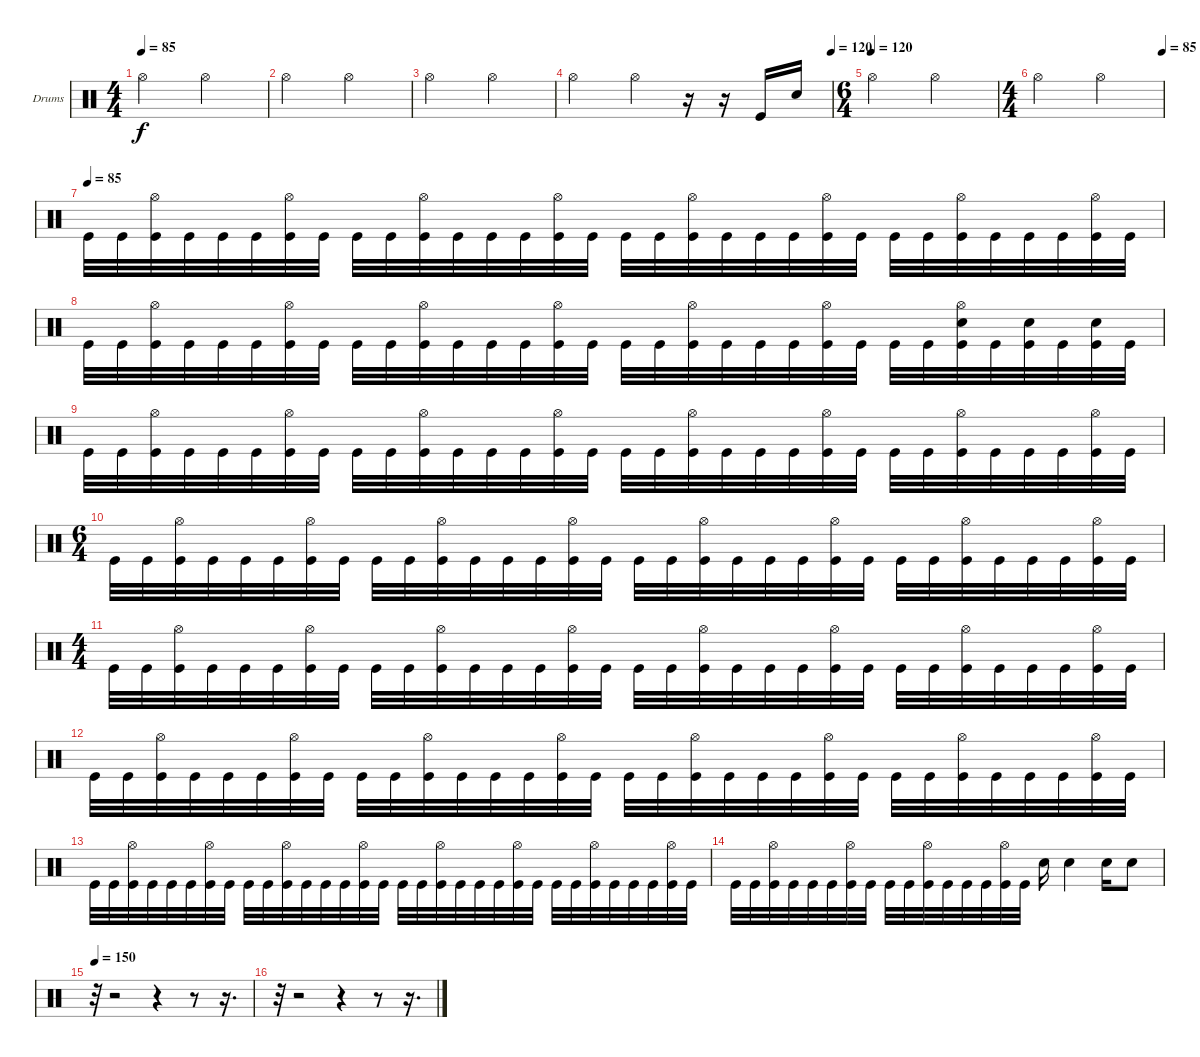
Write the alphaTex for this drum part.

\bracketExtendMode groupsimilarinstruments
\firstSystemTrackNameOrientation horizontal
\otherSystemsTrackNameOrientation horizontal
\track ("Drumkit" "Drums") {instrument percussion}
\staff {score}
\articulation defaults
\ts (4 4)
\beaming (8 2 2 2 2)
\tempo 85
\clef neutral
\ks c "Hi-Hat (open)".2{dy f} "Hi-Hat (open)".2
|
"Hi-Hat (open)".2 "Hi-Hat (open)".2 |
"Hi-Hat (open)".2 "Hi-Hat (open)".2 |
\tempo (120 1)
"Hi-Hat (open)".2 "Hi-Hat (open)".4 r.16 r.16 "Kick (hit)".16 "Snare (hit) 2".16 |
\ts (6 4)
\tempo (120)
"Hi-Hat (open)".2 "Hi-Hat (open)".2 |
\ts (4 4)
\tempo (85 1)
"Hi-Hat (open)".2 "Hi-Hat (open)".2 |
\tempo (85)
"Kick (hit)".32 "Kick (hit)".32 ("Hi-Hat (open)" "Kick (hit)").32 "Kick (hit)".32 "Kick (hit)".32 "Kick (hit)".32 ("Hi-Hat (open)" "Kick (hit)").32 "Kick (hit)".32 "Kick (hit)".32 "Kick (hit)".32 ("Hi-Hat (open)" "Kick (hit)").32 "Kick (hit)".32 "Kick (hit)".32 "Kick (hit)".32 ("Hi-Hat (open)" "Kick (hit)").32 "Kick (hit)".32 "Kick (hit)".32 "Kick (hit)".32 ("Hi-Hat (open)" "Kick (hit)").32 "Kick (hit)".32 "Kick (hit)".32 "Kick (hit)".32 ("Hi-Hat (open)" "Kick (hit)").32 "Kick (hit)".32 "Kick (hit)".32 "Kick (hit)".32 ("Hi-Hat (open)" "Kick (hit)").32 "Kick (hit)".32 "Kick (hit)".32 "Kick (hit)".32 ("Hi-Hat (open)" "Kick (hit)").32 "Kick (hit)".32 |
"Kick (hit)".32 "Kick (hit)".32 ("Hi-Hat (open)" "Kick (hit)").32 "Kick (hit)".32 "Kick (hit)".32 "Kick (hit)".32 ("Hi-Hat (open)" "Kick (hit)").32 "Kick (hit)".32 "Kick (hit)".32 "Kick (hit)".32 ("Hi-Hat (open)" "Kick (hit)").32 "Kick (hit)".32 "Kick (hit)".32 "Kick (hit)".32 ("Hi-Hat (open)" "Kick (hit)").32 "Kick (hit)".32 "Kick (hit)".32 "Kick (hit)".32 ("Hi-Hat (open)" "Kick (hit)").32 "Kick (hit)".32 "Kick (hit)".32 "Kick (hit)".32 ("Hi-Hat (open)" "Kick (hit)").32 "Kick (hit)".32 "Kick (hit)".32 "Kick (hit)".32 ("Hi-Hat (open)" "Snare (hit) 2" "Kick (hit)").32 "Kick (hit)".32 ("Snare (hit) 2" "Kick (hit)").32 "Kick (hit)".32 ("Snare (hit) 2" "Kick (hit)").32 "Kick (hit)".32 |
"Kick (hit)".32 "Kick (hit)".32 ("Hi-Hat (open)" "Kick (hit)").32 "Kick (hit)".32 "Kick (hit)".32 "Kick (hit)".32 ("Hi-Hat (open)" "Kick (hit)").32 "Kick (hit)".32 "Kick (hit)".32 "Kick (hit)".32 ("Hi-Hat (open)" "Kick (hit)").32 "Kick (hit)".32 "Kick (hit)".32 "Kick (hit)".32 ("Hi-Hat (open)" "Kick (hit)").32 "Kick (hit)".32 "Kick (hit)".32 "Kick (hit)".32 ("Hi-Hat (open)" "Kick (hit)").32 "Kick (hit)".32 "Kick (hit)".32 "Kick (hit)".32 ("Hi-Hat (open)" "Kick (hit)").32 "Kick (hit)".32 "Kick (hit)".32 "Kick (hit)".32 ("Hi-Hat (open)" "Kick (hit)").32 "Kick (hit)".32 "Kick (hit)".32 "Kick (hit)".32 ("Hi-Hat (open)" "Kick (hit)").32 "Kick (hit)".32 |
\ts (6 4)
"Kick (hit)".32 "Kick (hit)".32 ("Hi-Hat (open)" "Kick (hit)").32 "Kick (hit)".32 "Kick (hit)".32 "Kick (hit)".32 ("Hi-Hat (open)" "Kick (hit)").32 "Kick (hit)".32 "Kick (hit)".32 "Kick (hit)".32 ("Hi-Hat (open)" "Kick (hit)").32 "Kick (hit)".32 "Kick (hit)".32 "Kick (hit)".32 ("Hi-Hat (open)" "Kick (hit)").32 "Kick (hit)".32 "Kick (hit)".32 "Kick (hit)".32 ("Hi-Hat (open)" "Kick (hit)").32 "Kick (hit)".32 "Kick (hit)".32 "Kick (hit)".32 ("Hi-Hat (open)" "Kick (hit)").32 "Kick (hit)".32 "Kick (hit)".32 "Kick (hit)".32 ("Hi-Hat (open)" "Kick (hit)").32 "Kick (hit)".32 "Kick (hit)".32 "Kick (hit)".32 ("Hi-Hat (open)" "Kick (hit)").32 "Kick (hit)".32 |
\ts (4 4)
"Kick (hit)".32 "Kick (hit)".32 ("Hi-Hat (open)" "Kick (hit)").32 "Kick (hit)".32 "Kick (hit)".32 "Kick (hit)".32 ("Hi-Hat (open)" "Kick (hit)").32 "Kick (hit)".32 "Kick (hit)".32 "Kick (hit)".32 ("Hi-Hat (open)" "Kick (hit)").32 "Kick (hit)".32 "Kick (hit)".32 "Kick (hit)".32 ("Hi-Hat (open)" "Kick (hit)").32 "Kick (hit)".32 "Kick (hit)".32 "Kick (hit)".32 ("Hi-Hat (open)" "Kick (hit)").32 "Kick (hit)".32 "Kick (hit)".32 "Kick (hit)".32 ("Hi-Hat (open)" "Kick (hit)").32 "Kick (hit)".32 "Kick (hit)".32 "Kick (hit)".32 ("Hi-Hat (open)" "Kick (hit)").32 "Kick (hit)".32 "Kick (hit)".32 "Kick (hit)".32 ("Hi-Hat (open)" "Kick (hit)").32 "Kick (hit)".32 |
"Kick (hit)".32 "Kick (hit)".32 ("Hi-Hat (open)" "Kick (hit)").32 "Kick (hit)".32 "Kick (hit)".32 "Kick (hit)".32 ("Hi-Hat (open)" "Kick (hit)").32 "Kick (hit)".32 "Kick (hit)".32 "Kick (hit)".32 ("Hi-Hat (open)" "Kick (hit)").32 "Kick (hit)".32 "Kick (hit)".32 "Kick (hit)".32 ("Hi-Hat (open)" "Kick (hit)").32 "Kick (hit)".32 "Kick (hit)".32 "Kick (hit)".32 ("Hi-Hat (open)" "Kick (hit)").32 "Kick (hit)".32 "Kick (hit)".32 "Kick (hit)".32 ("Hi-Hat (open)" "Kick (hit)").32 "Kick (hit)".32 "Kick (hit)".32 "Kick (hit)".32 ("Hi-Hat (open)" "Kick (hit)").32 "Kick (hit)".32 "Kick (hit)".32 "Kick (hit)".32 ("Hi-Hat (open)" "Kick (hit)").32 "Kick (hit)".32 |
"Kick (hit)".32 "Kick (hit)".32 ("Hi-Hat (open)" "Kick (hit)").32 "Kick (hit)".32 "Kick (hit)".32 "Kick (hit)".32 ("Hi-Hat (open)" "Kick (hit)").32 "Kick (hit)".32 "Kick (hit)".32 "Kick (hit)".32 ("Hi-Hat (open)" "Kick (hit)").32 "Kick (hit)".32 "Kick (hit)".32 "Kick (hit)".32 ("Hi-Hat (open)" "Kick (hit)").32 "Kick (hit)".32 "Kick (hit)".32 "Kick (hit)".32 ("Hi-Hat (open)" "Kick (hit)").32 "Kick (hit)".32 "Kick (hit)".32 "Kick (hit)".32 ("Hi-Hat (open)" "Kick (hit)").32 "Kick (hit)".32 "Kick (hit)".32 "Kick (hit)".32 ("Hi-Hat (open)" "Kick (hit)").32 "Kick (hit)".32 "Kick (hit)".32 "Kick (hit)".32 ("Hi-Hat (open)" "Kick (hit)").32 "Kick (hit)".32 |
"Kick (hit)".32 "Kick (hit)".32 ("Hi-Hat (open)" "Kick (hit)").32 "Kick (hit)".32 "Kick (hit)".32 "Kick (hit)".32 ("Hi-Hat (open)" "Kick (hit)").32 "Kick (hit)".32 "Kick (hit)".32 "Kick (hit)".32 ("Hi-Hat (open)" "Kick (hit)").32 "Kick (hit)".32 "Kick (hit)".32 "Kick (hit)".32 ("Hi-Hat (open)" "Kick (hit)").32 "Kick (hit)".32 "Snare (hit) 2".16 "Snare (hit) 2".4 "Snare (hit) 2".16 "Snare (hit) 2".8 |
\tempo 150
r.32 r.2 r.4 r.8 r.16{d} |
r.32 r.2 r.4 r.8 r.16{d}
